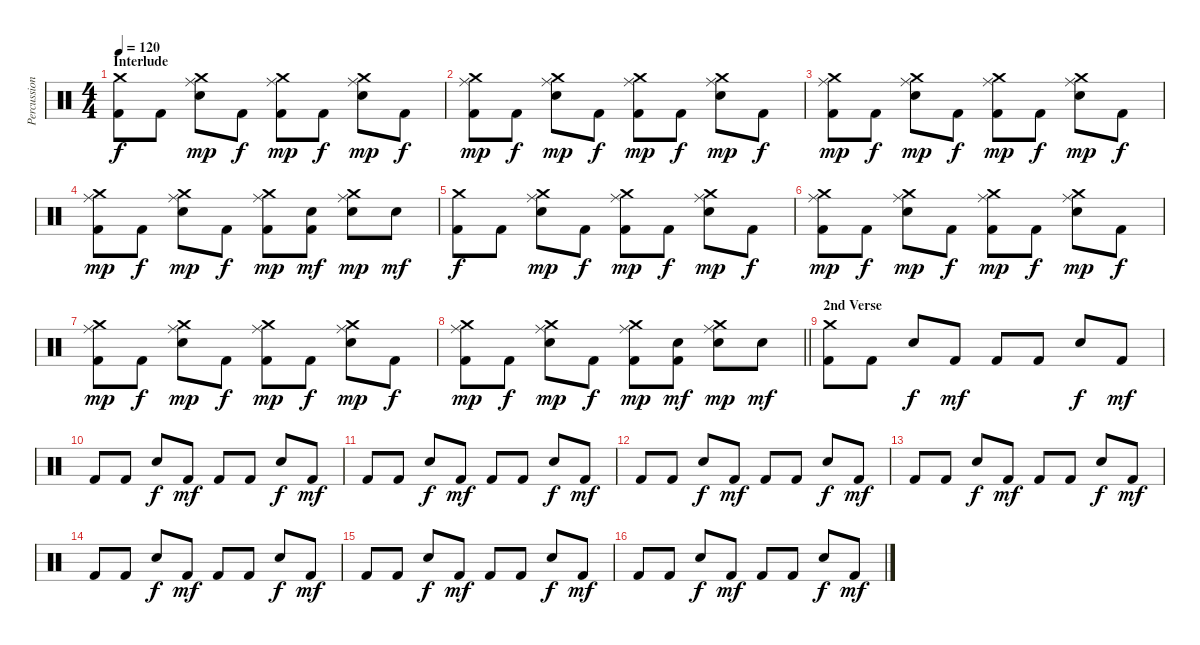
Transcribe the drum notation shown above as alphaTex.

\track ("Percussion" "Percussion") {instrument percussion}
\staff {score}
\articulation defaults
\ts (4 4)
\section ("" "Interlude")
\tempo 120
\clef neutral
\ks c
("Crash medium (hit)" "Kick (hit) 2").8{dy f} "Kick (hit) 2".8 ("Ride (middle)" "Crash medium (hit)" "Electric Snare (hit)").8{dy mp} "Kick (hit) 2".8{dy f} ("Ride (middle)" "Crash medium (hit)" "Kick (hit) 2").8{dy mp} "Kick (hit) 2".8{dy f} ("Ride (middle)" "Crash medium (hit)" "Electric Snare (hit)").8{dy mp} "Kick (hit) 2".8{dy f} |
("Ride (middle)" "Crash medium (hit)" "Kick (hit) 2").8{dy mp} "Kick (hit) 2".8{dy f} ("Ride (middle)" "Crash medium (hit)" "Electric Snare (hit)").8{dy mp} "Kick (hit) 2".8{dy f} ("Ride (middle)" "Crash medium (hit)" "Kick (hit) 2").8{dy mp} "Kick (hit) 2".8{dy f} ("Ride (middle)" "Crash medium (hit)" "Electric Snare (hit)").8{dy mp} "Kick (hit) 2".8{dy f} |
("Ride (middle)" "Crash medium (hit)" "Kick (hit) 2").8{dy mp} "Kick (hit) 2".8{dy f} ("Ride (middle)" "Crash medium (hit)" "Electric Snare (hit)").8{dy mp} "Kick (hit) 2".8{dy f} ("Ride (middle)" "Crash medium (hit)" "Kick (hit) 2").8{dy mp} "Kick (hit) 2".8{dy f} ("Ride (middle)" "Crash medium (hit)" "Electric Snare (hit)").8{dy mp} "Kick (hit) 2".8{dy f} |
("Ride (middle)" "Crash medium (hit)" "Kick (hit) 2").8{dy mp} "Kick (hit) 2".8{dy f} ("Ride (middle)" "Crash medium (hit)" "Electric Snare (hit)").8{dy mp} "Kick (hit) 2".8{dy f} ("Ride (middle)" "Crash medium (hit)" "Kick (hit) 2").8{dy mp} ("Electric Snare (hit)" "Kick (hit) 2").8{dy mf} ("Ride (middle)" "Crash medium (hit)" "Electric Snare (hit)").8{dy mp} "Electric Snare (hit)".8{dy mf} |
("Crash medium (hit)" "Kick (hit) 2").8{dy f} "Kick (hit) 2".8 ("Ride (middle)" "Crash medium (hit)" "Electric Snare (hit)").8{dy mp} "Kick (hit) 2".8{dy f} ("Ride (middle)" "Crash medium (hit)" "Kick (hit) 2").8{dy mp} "Kick (hit) 2".8{dy f} ("Ride (middle)" "Crash medium (hit)" "Electric Snare (hit)").8{dy mp} "Kick (hit) 2".8{dy f} |
("Ride (middle)" "Crash medium (hit)" "Kick (hit) 2").8{dy mp} "Kick (hit) 2".8{dy f} ("Ride (middle)" "Crash medium (hit)" "Electric Snare (hit)").8{dy mp} "Kick (hit) 2".8{dy f} ("Ride (middle)" "Crash medium (hit)" "Kick (hit) 2").8{dy mp} "Kick (hit) 2".8{dy f} ("Ride (middle)" "Crash medium (hit)" "Electric Snare (hit)").8{dy mp} "Kick (hit) 2".8{dy f} |
("Ride (middle)" "Crash medium (hit)" "Kick (hit) 2").8{dy mp} "Kick (hit) 2".8{dy f} ("Ride (middle)" "Crash medium (hit)" "Electric Snare (hit)").8{dy mp} "Kick (hit) 2".8{dy f} ("Ride (middle)" "Crash medium (hit)" "Kick (hit) 2").8{dy mp} "Kick (hit) 2".8{dy f} ("Ride (middle)" "Crash medium (hit)" "Electric Snare (hit)").8{dy mp} "Kick (hit) 2".8{dy f} |
\barLineRight lightlight
("Ride (middle)" "Crash medium (hit)" "Kick (hit) 2").8{dy mp} "Kick (hit) 2".8{dy f} ("Ride (middle)" "Crash medium (hit)" "Electric Snare (hit)").8{dy mp} "Kick (hit) 2".8{dy f} ("Ride (middle)" "Crash medium (hit)" "Kick (hit) 2").8{dy mp} ("Electric Snare (hit)" "Kick (hit) 2").8{dy mf} ("Ride (middle)" "Crash medium (hit)" "Electric Snare (hit)").8{dy mp} "Electric Snare (hit)".8{dy mf} |
\section ("" "2nd Verse")
("Crash medium (hit)" "Kick (hit) 2").8 "Kick (hit) 2".8 "Electric Snare (hit)".8{dy f} "Kick (hit) 2".8{dy mf} "Kick (hit) 2".8 "Kick (hit) 2".8 "Electric Snare (hit)".8{dy f} "Kick (hit) 2".8{dy mf} |
"Kick (hit) 2".8 "Kick (hit) 2".8 "Electric Snare (hit)".8{dy f} "Kick (hit) 2".8{dy mf} "Kick (hit) 2".8 "Kick (hit) 2".8 "Electric Snare (hit)".8{dy f} "Kick (hit) 2".8{dy mf} |
"Kick (hit) 2".8 "Kick (hit) 2".8 "Electric Snare (hit)".8{dy f} "Kick (hit) 2".8{dy mf} "Kick (hit) 2".8 "Kick (hit) 2".8 "Electric Snare (hit)".8{dy f} "Kick (hit) 2".8{dy mf} |
"Kick (hit) 2".8 "Kick (hit) 2".8 "Electric Snare (hit)".8{dy f} "Kick (hit) 2".8{dy mf} "Kick (hit) 2".8 "Kick (hit) 2".8 "Electric Snare (hit)".8{dy f} "Kick (hit) 2".8{dy mf} |
"Kick (hit) 2".8 "Kick (hit) 2".8 "Electric Snare (hit)".8{dy f} "Kick (hit) 2".8{dy mf} "Kick (hit) 2".8 "Kick (hit) 2".8 "Electric Snare (hit)".8{dy f} "Kick (hit) 2".8{dy mf} |
"Kick (hit) 2".8 "Kick (hit) 2".8 "Electric Snare (hit)".8{dy f} "Kick (hit) 2".8{dy mf} "Kick (hit) 2".8 "Kick (hit) 2".8 "Electric Snare (hit)".8{dy f} "Kick (hit) 2".8{dy mf} |
"Kick (hit) 2".8 "Kick (hit) 2".8 "Electric Snare (hit)".8{dy f} "Kick (hit) 2".8{dy mf} "Kick (hit) 2".8 "Kick (hit) 2".8 "Electric Snare (hit)".8{dy f} "Kick (hit) 2".8{dy mf} |
"Kick (hit) 2".8 "Kick (hit) 2".8 "Electric Snare (hit)".8{dy f} "Kick (hit) 2".8{dy mf} "Kick (hit) 2".8 "Kick (hit) 2".8 "Electric Snare (hit)".8{dy f} "Kick (hit) 2".8{dy mf}
